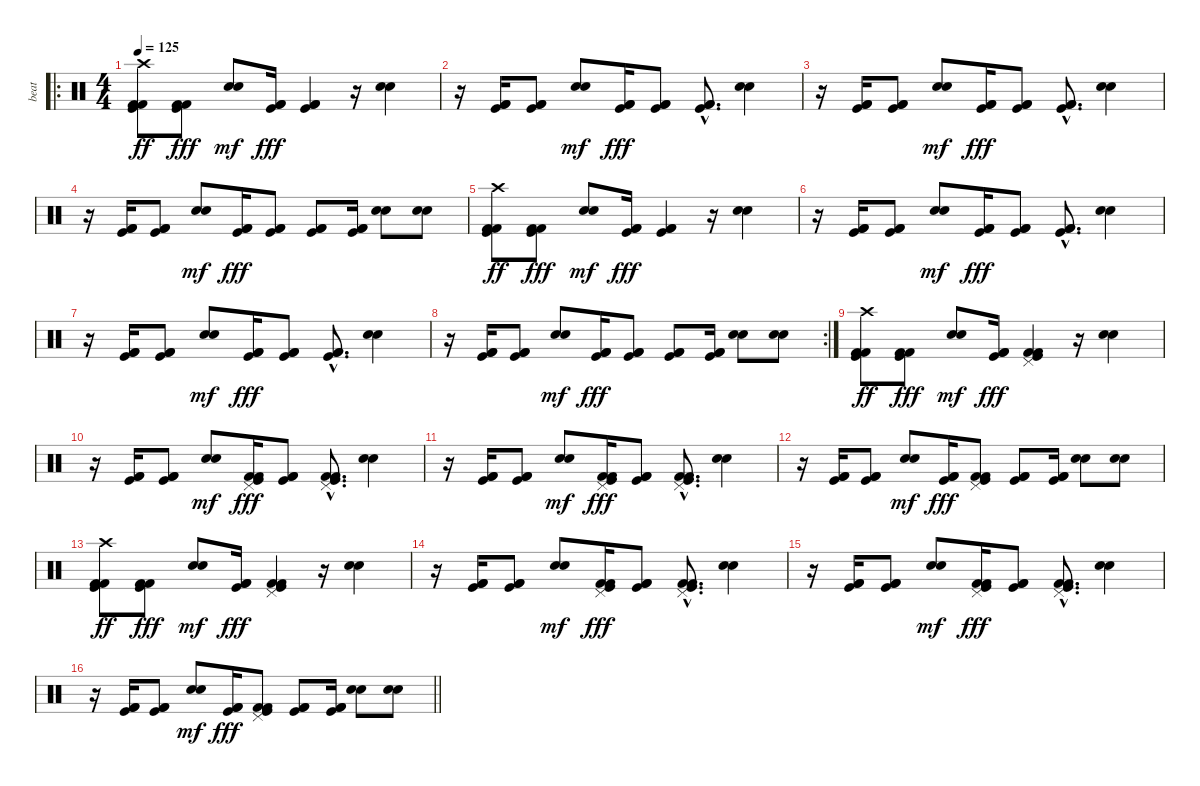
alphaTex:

\track ("beat" "beat") {instrument percussion}
\staff {score}
\articulation defaults
\ro
\ts (4 4)
\tempo 125
\clef neutral
\ks c
("Kick (hit)" "Kick (hit) 2" "Kick (hit) 2" "Crash high (hit)").8{dy ff} ("Kick (hit)" "Kick (hit) 2" "Kick (hit) 2").8{dy fff} ("Snare (hit) 2" "Hand Clap (hit)").8{dy mf} ("Kick (hit)" "Kick (hit) 2" "Kick (hit) 2").16{dy fff} ("Kick (hit)" "Kick (hit) 2" "Kick (hit) 2").4 r.16 ("Snare (hit) 2" "Electric Snare (hit)").4 |
r.16 ("Kick (hit)" "Kick (hit) 2" "Kick (hit) 2").16 ("Kick (hit)" "Kick (hit) 2" "Kick (hit) 2").8 ("Snare (hit) 2" "Hand Clap (hit)").8{dy mf} ("Kick (hit)" "Kick (hit) 2" "Kick (hit) 2").16{dy fff} ("Kick (hit)" "Kick (hit) 2" "Kick (hit) 2").8 ("Kick (hit)"{hac} "Kick (hit) 2"{hac} "Kick (hit) 2"{hac}).8{d} ("Snare (hit) 2" "Electric Snare (hit)").4 |
r.16 ("Kick (hit)" "Kick (hit) 2" "Kick (hit) 2").16 ("Kick (hit)" "Kick (hit) 2" "Kick (hit) 2").8 ("Snare (hit) 2" "Hand Clap (hit)").8{dy mf} ("Kick (hit)" "Kick (hit) 2" "Kick (hit) 2").16{dy fff} ("Kick (hit)" "Kick (hit) 2" "Kick (hit) 2").8 ("Kick (hit)"{hac} "Kick (hit) 2"{hac} "Kick (hit) 2"{hac}).8{d} ("Snare (hit) 2" "Electric Snare (hit)").4 |
r.16 ("Kick (hit)" "Kick (hit) 2" "Kick (hit) 2").16 ("Kick (hit)" "Kick (hit) 2" "Kick (hit) 2").8 ("Snare (hit) 2" "Hand Clap (hit)").8{dy mf} ("Kick (hit)" "Kick (hit) 2" "Kick (hit) 2").16{dy fff} ("Kick (hit)" "Kick (hit) 2" "Kick (hit) 2").8 ("Kick (hit)" "Kick (hit) 2" "Kick (hit) 2").8 ("Kick (hit)" "Kick (hit) 2" "Kick (hit) 2").16 ("Snare (hit) 2" "Electric Snare (hit)").8 ("Snare (hit) 2" "Electric Snare (hit)").8 |
("Kick (hit)" "Kick (hit) 2" "Kick (hit) 2" "Crash high (hit)").8{dy ff} ("Kick (hit)" "Kick (hit) 2" "Kick (hit) 2").8{dy fff} ("Snare (hit) 2" "Hand Clap (hit)").8{dy mf} ("Kick (hit)" "Kick (hit) 2" "Kick (hit) 2").16{dy fff} ("Kick (hit)" "Kick (hit) 2" "Kick (hit) 2").4 r.16 ("Snare (hit) 2" "Electric Snare (hit)").4 |
r.16 ("Kick (hit)" "Kick (hit) 2" "Kick (hit) 2").16 ("Kick (hit)" "Kick (hit) 2" "Kick (hit) 2").8 ("Snare (hit) 2" "Hand Clap (hit)").8{dy mf} ("Kick (hit)" "Kick (hit) 2" "Kick (hit) 2").16{dy fff} ("Kick (hit)" "Kick (hit) 2" "Kick (hit) 2").8 ("Kick (hit)"{hac} "Kick (hit) 2"{hac} "Kick (hit) 2"{hac}).8{d} ("Snare (hit) 2" "Electric Snare (hit)").4 |
r.16 ("Kick (hit)" "Kick (hit) 2" "Kick (hit) 2").16 ("Kick (hit)" "Kick (hit) 2" "Kick (hit) 2").8 ("Snare (hit) 2" "Hand Clap (hit)").8{dy mf} ("Kick (hit)" "Kick (hit) 2" "Kick (hit) 2").16{dy fff} ("Kick (hit)" "Kick (hit) 2" "Kick (hit) 2").8 ("Kick (hit)"{hac} "Kick (hit) 2"{hac} "Kick (hit) 2"{hac}).8{d} ("Snare (hit) 2" "Electric Snare (hit)").4 |
\rc 2
r.16 ("Kick (hit)" "Kick (hit) 2" "Kick (hit) 2").16 ("Kick (hit)" "Kick (hit) 2" "Kick (hit) 2").8 ("Snare (hit) 2" "Hand Clap (hit)").8{dy mf} ("Kick (hit)" "Kick (hit) 2" "Kick (hit) 2").16{dy fff} ("Kick (hit)" "Kick (hit) 2" "Kick (hit) 2").8 ("Kick (hit)" "Kick (hit) 2" "Kick (hit) 2").8 ("Kick (hit)" "Kick (hit) 2" "Kick (hit) 2").16 ("Snare (hit) 2" "Electric Snare (hit)").8 ("Snare (hit) 2" "Electric Snare (hit)").8 |
("Kick (hit)" "Kick (hit) 2" "Kick (hit) 2" "Crash high (hit)").8{dy ff} ("Kick (hit)" "Kick (hit) 2" "Kick (hit) 2").8{dy fff} ("Snare (hit) 2" "Hand Clap (hit)").8{dy mf} ("Kick (hit)" "Kick (hit) 2" "Kick (hit) 2").16{dy fff} ("Kick (hit)" "Kick (hit) 2" "Kick (hit) 2" "Pedal Hi-Hat (hit)").4 r.16 ("Snare (hit) 2" "Electric Snare (hit)").4 |
r.16 ("Kick (hit)" "Kick (hit) 2" "Kick (hit) 2").16 ("Kick (hit)" "Kick (hit) 2" "Kick (hit) 2").8 ("Snare (hit) 2" "Hand Clap (hit)").8{dy mf} ("Kick (hit)" "Kick (hit) 2" "Kick (hit) 2" "Pedal Hi-Hat (hit)").16{dy fff} ("Kick (hit)" "Kick (hit) 2" "Kick (hit) 2").8 ("Kick (hit)"{hac} "Kick (hit) 2"{hac} "Kick (hit) 2"{hac} "Pedal Hi-Hat (hit)"{hac}).8{d} ("Snare (hit) 2" "Electric Snare (hit)").4 |
r.16 ("Kick (hit)" "Kick (hit) 2" "Kick (hit) 2").16 ("Kick (hit)" "Kick (hit) 2" "Kick (hit) 2").8 ("Snare (hit) 2" "Hand Clap (hit)").8{dy mf} ("Kick (hit)" "Kick (hit) 2" "Kick (hit) 2" "Pedal Hi-Hat (hit)").16{dy fff} ("Kick (hit)" "Kick (hit) 2" "Kick (hit) 2").8 ("Kick (hit)"{hac} "Kick (hit) 2"{hac} "Kick (hit) 2"{hac} "Pedal Hi-Hat (hit)"{hac}).8{d} ("Snare (hit) 2" "Electric Snare (hit)").4 |
r.16 ("Kick (hit)" "Kick (hit) 2" "Kick (hit) 2").16 ("Kick (hit)" "Kick (hit) 2" "Kick (hit) 2").8 ("Snare (hit) 2" "Hand Clap (hit)").8{dy mf} ("Kick (hit)" "Kick (hit) 2" "Kick (hit) 2").16{dy fff} ("Kick (hit)" "Kick (hit) 2" "Kick (hit) 2" "Pedal Hi-Hat (hit)").8 ("Kick (hit)" "Kick (hit) 2" "Kick (hit) 2").8 ("Kick (hit)" "Kick (hit) 2" "Kick (hit) 2").16 ("Snare (hit) 2" "Electric Snare (hit)").8 ("Snare (hit) 2" "Electric Snare (hit)").8 |
("Kick (hit)" "Kick (hit) 2" "Kick (hit) 2" "Crash high (hit)").8{dy ff} ("Kick (hit)" "Kick (hit) 2" "Kick (hit) 2").8{dy fff} ("Snare (hit) 2" "Hand Clap (hit)").8{dy mf} ("Kick (hit)" "Kick (hit) 2" "Kick (hit) 2").16{dy fff} ("Kick (hit)" "Kick (hit) 2" "Kick (hit) 2" "Pedal Hi-Hat (hit)").4 r.16 ("Snare (hit) 2" "Electric Snare (hit)").4 |
r.16 ("Kick (hit)" "Kick (hit) 2" "Kick (hit) 2").16 ("Kick (hit)" "Kick (hit) 2" "Kick (hit) 2").8 ("Snare (hit) 2" "Hand Clap (hit)").8{dy mf} ("Kick (hit)" "Kick (hit) 2" "Kick (hit) 2" "Pedal Hi-Hat (hit)").16{dy fff} ("Kick (hit)" "Kick (hit) 2" "Kick (hit) 2").8 ("Kick (hit)"{hac} "Kick (hit) 2"{hac} "Kick (hit) 2"{hac} "Pedal Hi-Hat (hit)"{hac}).8{d} ("Snare (hit) 2" "Electric Snare (hit)").4 |
r.16 ("Kick (hit)" "Kick (hit) 2" "Kick (hit) 2").16 ("Kick (hit)" "Kick (hit) 2" "Kick (hit) 2").8 ("Snare (hit) 2" "Hand Clap (hit)").8{dy mf} ("Kick (hit)" "Kick (hit) 2" "Kick (hit) 2" "Pedal Hi-Hat (hit)").16{dy fff} ("Kick (hit)" "Kick (hit) 2" "Kick (hit) 2").8 ("Kick (hit)"{hac} "Kick (hit) 2"{hac} "Kick (hit) 2"{hac} "Pedal Hi-Hat (hit)"{hac}).8{d} ("Snare (hit) 2" "Electric Snare (hit)").4 |
\barLineRight lightlight
r.16 ("Kick (hit)" "Kick (hit) 2" "Kick (hit) 2").16 ("Kick (hit)" "Kick (hit) 2" "Kick (hit) 2").8 ("Snare (hit) 2" "Hand Clap (hit)").8{dy mf} ("Kick (hit)" "Kick (hit) 2" "Kick (hit) 2").16{dy fff} ("Kick (hit)" "Kick (hit) 2" "Kick (hit) 2" "Pedal Hi-Hat (hit)").8 ("Kick (hit)" "Kick (hit) 2" "Kick (hit) 2").8 ("Kick (hit)" "Kick (hit) 2" "Kick (hit) 2").16 ("Snare (hit) 2" "Electric Snare (hit)").8 ("Snare (hit) 2" "Electric Snare (hit)").8
